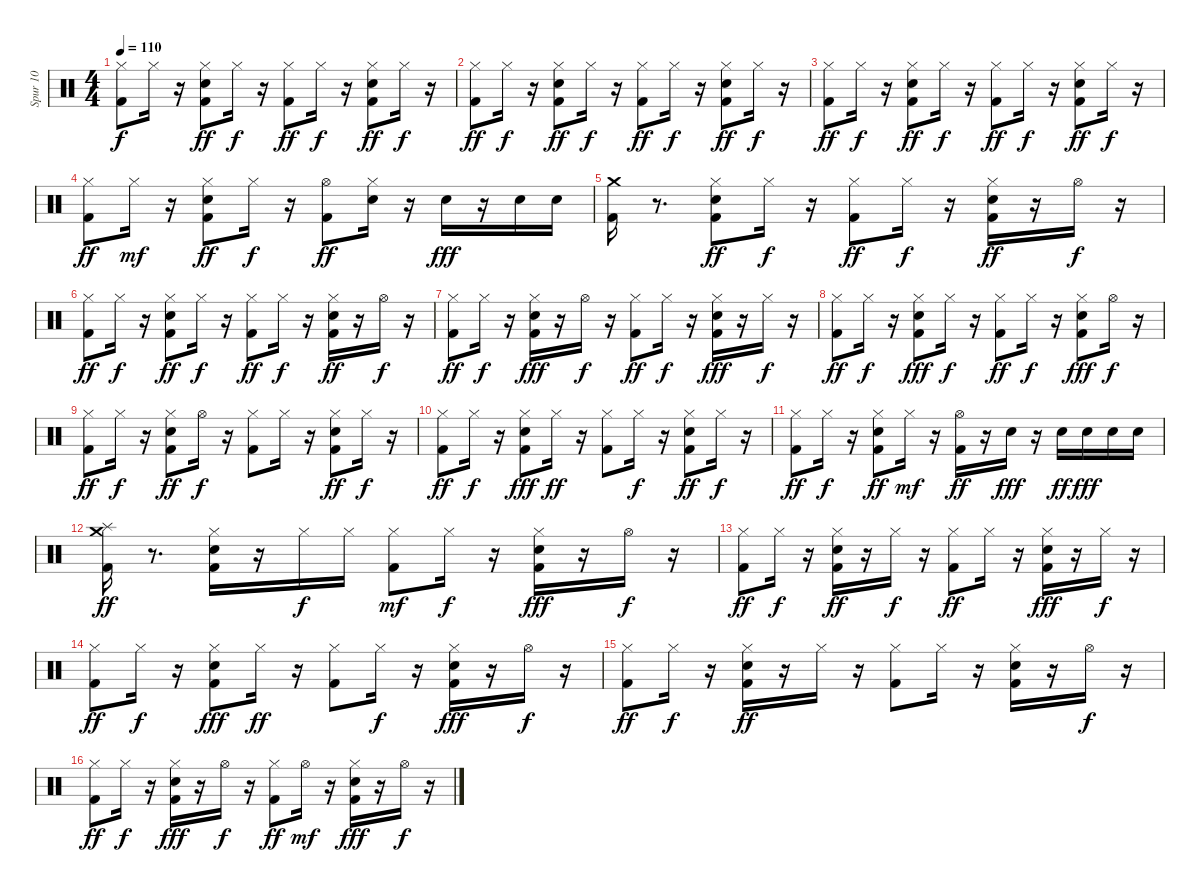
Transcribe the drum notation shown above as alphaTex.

\track ("Spur 10" "Spur 10") {instrument percussion}
\staff {score}
\articulation defaults
\ts (4 4)
\tempo 110
\clef neutral
\ks c
("Kick (hit) 2" "Hi-Hat (closed)").8{dy f} "Hi-Hat (closed)".16 r.16 ("Snare (hit) 2" "Kick (hit) 2" "Hi-Hat (closed)").8{dy ff} "Hi-Hat (closed)".16{dy f} r.16 ("Kick (hit) 2" "Hi-Hat (closed)").8{dy ff} "Hi-Hat (closed)".16{dy f} r.16 ("Snare (hit) 2" "Kick (hit) 2" "Hi-Hat (closed)").8{dy ff} "Hi-Hat (closed)".16{dy f} r.16 |
("Kick (hit) 2" "Hi-Hat (closed)").8{dy ff} "Hi-Hat (closed)".16{dy f} r.16 ("Snare (hit) 2" "Kick (hit) 2" "Hi-Hat (closed)").8{dy ff} "Hi-Hat (closed)".16{dy f} r.16 ("Kick (hit) 2" "Hi-Hat (closed)").8{dy ff} "Hi-Hat (closed)".16{dy f} r.16 ("Kick (hit) 2" "Snare (hit) 2" "Hi-Hat (closed)").8{dy ff} "Hi-Hat (closed)".16{dy f} r.16 |
("Kick (hit) 2" "Hi-Hat (closed)").8{dy ff} "Hi-Hat (closed)".16{dy f} r.16 ("Snare (hit) 2" "Kick (hit) 2" "Hi-Hat (closed)").8{dy ff} "Hi-Hat (closed)".16{dy f} r.16 ("Kick (hit) 2" "Hi-Hat (closed)").8{dy ff} "Hi-Hat (closed)".16{dy f} r.16 ("Snare (hit) 2" "Kick (hit) 2" "Hi-Hat (closed)").8{dy ff} "Hi-Hat (closed)".16{dy f} r.16 |
("Kick (hit) 2" "Hi-Hat (closed)").8{dy ff} "Hi-Hat (closed)".16{dy mf} r.16 ("Kick (hit) 2" "Snare (hit) 2" "Hi-Hat (closed)").8{dy ff} "Hi-Hat (closed)".16{dy f} r.16 ("Kick (hit) 2" "Hi-Hat (open)").8{dy ff} ("Hi-Hat (closed)" "Snare (hit) 2").16 r.16 "Snare (hit) 2".16{dy fff} r.16 "Snare (hit) 2".16 "Snare (hit) 2".16 |
("Kick (hit) 2" "Crash medium (hit)").16 r.8{d} ("Snare (hit) 2" "Hi-Hat (closed)" "Kick (hit) 2").8{dy ff} "Hi-Hat (closed)".16{dy f} r.16 ("Kick (hit) 2" "Hi-Hat (closed)").8{dy ff} "Hi-Hat (closed)".16{dy f} r.16 ("Snare (hit) 2" "Kick (hit) 2" "Hi-Hat (closed)").16{dy ff} r.16 "Hi-Hat (open)".16{dy f} r.16 |
("Kick (hit) 2" "Hi-Hat (closed)").8{dy ff} "Hi-Hat (closed)".16{dy f} r.16 ("Snare (hit) 2" "Kick (hit) 2" "Hi-Hat (closed)").8{dy ff} "Hi-Hat (closed)".16{dy f} r.16 ("Kick (hit) 2" "Hi-Hat (closed)").8{dy ff} "Hi-Hat (closed)".16{dy f} r.16 ("Kick (hit) 2" "Snare (hit) 2" "Hi-Hat (closed)").16{dy ff} r.16 "Hi-Hat (open)".16{dy f} r.16 |
("Kick (hit) 2" "Hi-Hat (closed)").8{dy ff} "Hi-Hat (closed)".16{dy f} r.16 ("Kick (hit) 2" "Snare (hit) 2" "Hi-Hat (closed)").16{dy fff} r.16 "Hi-Hat (open)".16{dy f} r.16 ("Kick (hit) 2" "Hi-Hat (closed)").8{dy ff} "Hi-Hat (closed)".16{dy f} r.16 ("Snare (hit) 2" "Kick (hit) 2" "Hi-Hat (closed)").16{dy fff} r.16 "Hi-Hat (closed)".16{dy f} r.16 |
("Kick (hit) 2" "Hi-Hat (closed)").8{dy ff} "Hi-Hat (closed)".16{dy f} r.16 ("Kick (hit) 2" "Snare (hit) 2" "Hi-Hat (closed)").8{dy fff} "Hi-Hat (closed)".16{dy f} r.16 ("Hi-Hat (closed)" "Kick (hit) 2").8{dy ff} "Hi-Hat (closed)".16{dy f} r.16 ("Kick (hit) 2" "Snare (hit) 2" "Hi-Hat (closed)").8{dy fff} "Hi-Hat (open)".16{dy f} r.16 |
("Hi-Hat (closed)" "Kick (hit) 2").8{dy ff} "Hi-Hat (closed)".16{dy f} r.16 ("Kick (hit) 2" "Snare (hit) 2" "Hi-Hat (closed)").8{dy ff} "Hi-Hat (open)".16{dy f} r.16 ("Kick (hit) 2" "Hi-Hat (closed)").8 "Hi-Hat (closed)".16 r.16 ("Snare (hit) 2" "Kick (hit) 2" "Hi-Hat (closed)").8{dy ff} "Hi-Hat (closed)".16{dy f} r.16 |
("Kick (hit) 2" "Hi-Hat (closed)").8{dy ff} "Hi-Hat (closed)".16{dy f} r.16 ("Kick (hit) 2" "Snare (hit) 2" "Hi-Hat (closed)").8{dy fff} "Hi-Hat (closed)".16{dy ff} r.16 ("Kick (hit) 2" "Hi-Hat (closed)").8 "Hi-Hat (closed)".16{dy f} r.16 ("Kick (hit) 2" "Snare (hit) 2" "Hi-Hat (closed)").8{dy ff} "Hi-Hat (closed)".16{dy f} r.16 |
("Kick (hit) 2" "Hi-Hat (closed)").8{dy ff} "Hi-Hat (closed)".16{dy f} r.16 ("Snare (hit) 2" "Kick (hit) 2" "Hi-Hat (closed)").8{dy ff} "Hi-Hat (closed)".16{dy mf} r.16 ("Hi-Hat (open)" "Kick (hit) 2").16{dy ff} r.16 "Snare (hit) 2".16{dy fff} r.16 "Snare (hit) 2".16{dy ff} "Snare (hit) 2".16{dy fff} "Snare (hit) 2".16 "Snare (hit) 2".16 |
("Kick (hit) 2" "Crash medium (hit)" "Splash (hit)").16{dy ff} r.8{d} ("Hi-Hat (closed)" "Snare (hit) 2" "Kick (hit) 2").16 r.16 "Hi-Hat (closed)".16{dy f} "Hi-Hat (closed)".16 ("Hi-Hat (closed)" "Kick (hit) 2").8{dy mf} "Hi-Hat (closed)".16{dy f} r.16 ("Kick (hit) 2" "Snare (hit) 2" "Hi-Hat (closed)").16{dy fff} r.16 "Hi-Hat (open)".16{dy f} r.16 |
("Kick (hit) 2" "Hi-Hat (closed)").8{dy ff} "Hi-Hat (closed)".16{dy f} r.16 ("Kick (hit) 2" "Snare (hit) 2" "Hi-Hat (closed)").16{dy ff} r.16 "Hi-Hat (closed)".16{dy f} r.16 ("Hi-Hat (closed)" "Kick (hit) 2").8{dy ff} "Hi-Hat (closed)".16 r.16 ("Kick (hit) 2" "Hi-Hat (closed)" "Snare (hit) 2").16{dy fff} r.16 "Hi-Hat (closed)".16{dy f} r.16 |
("Kick (hit) 2" "Hi-Hat (closed)").8{dy ff} "Hi-Hat (closed)".16{dy f} r.16 ("Kick (hit) 2" "Snare (hit) 2" "Hi-Hat (closed)").8{dy fff} "Hi-Hat (closed)".16{dy ff} r.16 ("Hi-Hat (closed)" "Kick (hit) 2").8 "Hi-Hat (closed)".16{dy f} r.16 ("Kick (hit) 2" "Snare (hit) 2" "Hi-Hat (closed)").16{dy fff} r.16 "Hi-Hat (open)".16{dy f} r.16 |
("Hi-Hat (closed)" "Kick (hit) 2").8{dy ff} "Hi-Hat (closed)".16{dy f} r.16 ("Snare (hit) 2" "Kick (hit) 2" "Hi-Hat (closed)").16{dy ff} r.16 "Hi-Hat (closed)".16 r.16 ("Hi-Hat (closed)" "Kick (hit) 2").8 "Hi-Hat (closed)".16 r.16 ("Kick (hit) 2" "Snare (hit) 2" "Hi-Hat (closed)").16 r.16 "Hi-Hat (open)".16{dy f} r.16 |
("Kick (hit) 2" "Hi-Hat (closed)").8{dy ff} "Hi-Hat (closed)".16{dy f} r.16 ("Kick (hit) 2" "Snare (hit) 2" "Hi-Hat (closed)").16{dy fff} r.16 "Hi-Hat (open)".16{dy f} r.16 ("Kick (hit) 2" "Hi-Hat (closed)").8{dy ff} "Hi-Hat (open)".16{dy mf} r.16 ("Hi-Hat (closed)" "Kick (hit) 2" "Snare (hit) 2").16{dy fff} r.16 "Hi-Hat (open)".16{dy f} r.16
